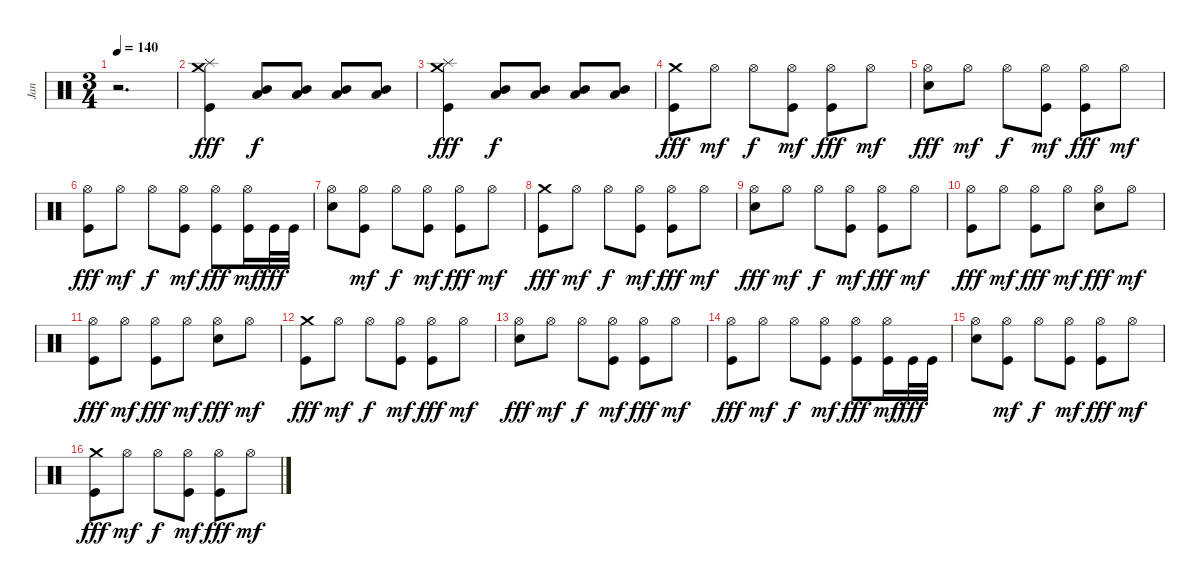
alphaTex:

\track ("Jan" "Jan") {instrument percussion}
\staff {score}
\articulation defaults
\ts (3 4)
\tempo 140
\clef neutral
\ks c
r.2{d dy fff} |
("Kick (hit)" "Splash (hit)" "Crash medium (hit)").4 ("Mid Tom (hit)" "Low Tom (hit)").8{dy f} ("Mid Tom (hit)" "Low Tom (hit)").8 ("Mid Tom (hit)" "Low Tom (hit)").8 ("Mid Tom (hit)" "Low Tom (hit)").8 |
("Kick (hit)" "Splash (hit)" "Crash medium (hit)").4{dy fff} ("Mid Tom (hit)" "Low Tom (hit)").8{dy f} ("Mid Tom (hit)" "Low Tom (hit)").8 ("Mid Tom (hit)" "Low Tom (hit)").8 ("Mid Tom (hit)" "Low Tom (hit)").8 |
("Kick (hit)" "Crash medium (hit)").8{dy fff} "Hi-Hat (open)".8{dy mf} "Hi-Hat (open)".8{dy f} ("Kick (hit)" "Hi-Hat (open)").8{dy mf} ("Kick (hit)" "Hi-Hat (open)").8{dy fff} "Hi-Hat (open)".8{dy mf} |
("Snare (hit) 2" "Hi-Hat (open)").8{dy fff} "Hi-Hat (open)".8{dy mf} "Hi-Hat (open)".8{dy f} ("Kick (hit)" "Hi-Hat (open)").8{dy mf} ("Kick (hit)" "Hi-Hat (open)").8{dy fff} "Hi-Hat (open)".8{dy mf} |
("Kick (hit)" "Hi-Hat (open)").8{dy fff} "Hi-Hat (open)".8{dy mf} "Hi-Hat (open)".8{dy f} ("Kick (hit)" "Hi-Hat (open)").8{dy mf} ("Kick (hit)" "Hi-Hat (open)").8{dy fff} ("Kick (hit)" "Hi-Hat (open)").16{dy mf} "Kick (hit)".32{dy fff} "Kick (hit)".32 |
("Snare (hit) 2" "Hi-Hat (open)").8 ("Kick (hit)" "Hi-Hat (open)").8{dy mf} "Hi-Hat (open)".8{dy f} ("Kick (hit)" "Hi-Hat (open)").8{dy mf} ("Kick (hit)" "Hi-Hat (open)").8{dy fff} "Hi-Hat (open)".8{dy mf} |
("Kick (hit)" "Crash medium (hit)").8{dy fff} "Hi-Hat (open)".8{dy mf} "Hi-Hat (open)".8{dy f} ("Kick (hit)" "Hi-Hat (open)").8{dy mf} ("Kick (hit)" "Hi-Hat (open)").8{dy fff} "Hi-Hat (open)".8{dy mf} |
("Snare (hit) 2" "Hi-Hat (open)").8{dy fff} "Hi-Hat (open)".8{dy mf} "Hi-Hat (open)".8{dy f} ("Kick (hit)" "Hi-Hat (open)").8{dy mf} ("Kick (hit)" "Hi-Hat (open)").8{dy fff} "Hi-Hat (open)".8{dy mf} |
("Kick (hit)" "Hi-Hat (open)").8{dy fff} "Hi-Hat (open)".8{dy mf} ("Kick (hit)" "Hi-Hat (open)").8{dy fff} "Hi-Hat (open)".8{dy mf} ("Snare (hit) 2" "Hi-Hat (open)").8{dy fff} "Hi-Hat (open)".8{dy mf} |
("Kick (hit)" "Hi-Hat (open)").8{dy fff} "Hi-Hat (open)".8{dy mf} ("Kick (hit)" "Hi-Hat (open)").8{dy fff} "Hi-Hat (open)".8{dy mf} ("Snare (hit) 2" "Hi-Hat (open)").8{dy fff} "Hi-Hat (open)".8{dy mf} |
("Kick (hit)" "Crash medium (hit)").8{dy fff} "Hi-Hat (open)".8{dy mf} "Hi-Hat (open)".8{dy f} ("Kick (hit)" "Hi-Hat (open)").8{dy mf} ("Kick (hit)" "Hi-Hat (open)").8{dy fff} "Hi-Hat (open)".8{dy mf} |
("Snare (hit) 2" "Hi-Hat (open)").8{dy fff} "Hi-Hat (open)".8{dy mf} "Hi-Hat (open)".8{dy f} ("Kick (hit)" "Hi-Hat (open)").8{dy mf} ("Kick (hit)" "Hi-Hat (open)").8{dy fff} "Hi-Hat (open)".8{dy mf} |
("Kick (hit)" "Hi-Hat (open)").8{dy fff} "Hi-Hat (open)".8{dy mf} "Hi-Hat (open)".8{dy f} ("Kick (hit)" "Hi-Hat (open)").8{dy mf} ("Kick (hit)" "Hi-Hat (open)").8{dy fff} ("Kick (hit)" "Hi-Hat (open)").16{dy mf} "Kick (hit)".32{dy fff} "Kick (hit)".32 |
("Snare (hit) 2" "Hi-Hat (open)").8 ("Kick (hit)" "Hi-Hat (open)").8{dy mf} "Hi-Hat (open)".8{dy f} ("Kick (hit)" "Hi-Hat (open)").8{dy mf} ("Kick (hit)" "Hi-Hat (open)").8{dy fff} "Hi-Hat (open)".8{dy mf} |
("Kick (hit)" "Crash medium (hit)").8{dy fff} "Hi-Hat (open)".8{dy mf} "Hi-Hat (open)".8{dy f} ("Kick (hit)" "Hi-Hat (open)").8{dy mf} ("Kick (hit)" "Hi-Hat (open)").8{dy fff} "Hi-Hat (open)".8{dy mf}
